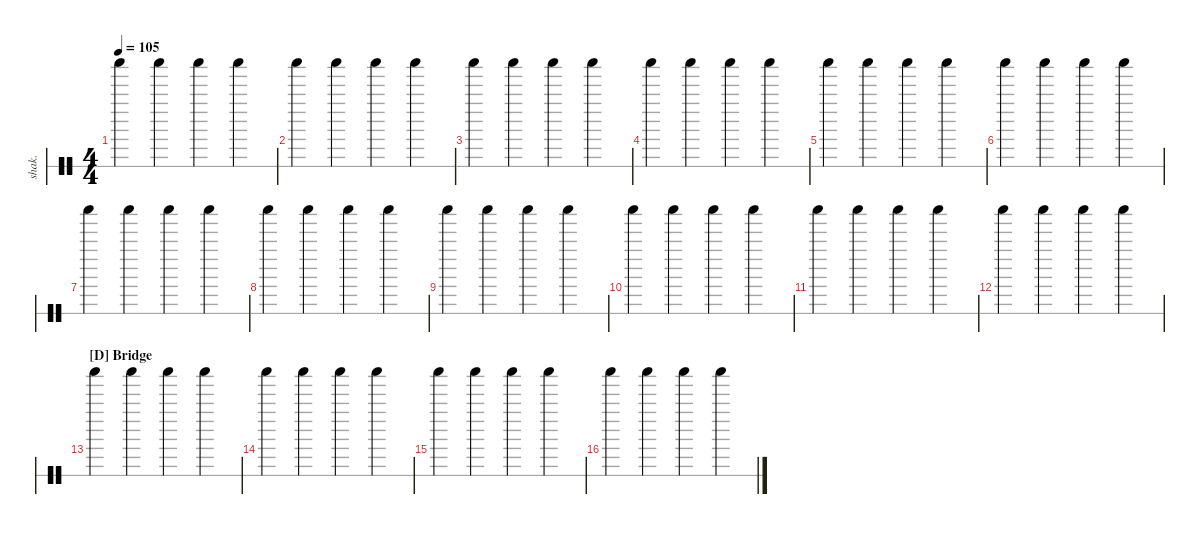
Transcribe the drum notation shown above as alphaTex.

\defaultSystemsLayout 4
\hideDynamics
\bracketExtendMode nobrackets
\otherSystemsTrackNameOrientation horizontal
\track ("Shaker" "shak.") {instrument percussion}
\staff {score 1}
\articulation defaults
\ts (4 4)
\tempo 105
\clef neutral
\ks c "Shaker (hit)".4{dy mp beam Down} "Shaker (hit)".4{beam Down} "Shaker (hit)".4{beam Down} "Shaker (hit)".4{beam Down}
|
"Shaker (hit)".4{beam Down} "Shaker (hit)".4{beam Down} "Shaker (hit)".4{beam Down} "Shaker (hit)".4{beam Down} |
"Shaker (hit)".4{beam Down} "Shaker (hit)".4{beam Down} "Shaker (hit)".4{beam Down} "Shaker (hit)".4{beam Down} |
"Shaker (hit)".4{beam Down} "Shaker (hit)".4{beam Down} "Shaker (hit)".4{beam Down} "Shaker (hit)".4{beam Down} |
"Shaker (hit)".4{beam Down} "Shaker (hit)".4{beam Down} "Shaker (hit)".4{beam Down} "Shaker (hit)".4{beam Down} |
"Shaker (hit)".4{beam Down} "Shaker (hit)".4{beam Down} "Shaker (hit)".4{beam Down} "Shaker (hit)".4{beam Down} |
"Shaker (hit)".4{beam Down} "Shaker (hit)".4{beam Down} "Shaker (hit)".4{beam Down} "Shaker (hit)".4{beam Down} |
"Shaker (hit)".4{beam Down} "Shaker (hit)".4{beam Down} "Shaker (hit)".4{beam Down} "Shaker (hit)".4{beam Down} |
"Shaker (hit)".4{beam Down} "Shaker (hit)".4{beam Down} "Shaker (hit)".4{beam Down} "Shaker (hit)".4{beam Down} |
"Shaker (hit)".4{beam Down} "Shaker (hit)".4{beam Down} "Shaker (hit)".4{beam Down} "Shaker (hit)".4{beam Down} |
"Shaker (hit)".4{beam Down} "Shaker (hit)".4{beam Down} "Shaker (hit)".4{beam Down} "Shaker (hit)".4{beam Down} |
"Shaker (hit)".4{beam Down} "Shaker (hit)".4{beam Down} "Shaker (hit)".4{beam Down} "Shaker (hit)".4{beam Down} |
\section ("D" "Bridge")
"Shaker (hit)".4{beam Down} "Shaker (hit)".4{beam Down} "Shaker (hit)".4{beam Down} "Shaker (hit)".4{beam Down} |
"Shaker (hit)".4{beam Down} "Shaker (hit)".4{beam Down} "Shaker (hit)".4{beam Down} "Shaker (hit)".4{beam Down} |
"Shaker (hit)".4{beam Down} "Shaker (hit)".4{beam Down} "Shaker (hit)".4{beam Down} "Shaker (hit)".4{beam Down} |
"Shaker (hit)".4{beam Down} "Shaker (hit)".4{beam Down} "Shaker (hit)".4{beam Down} "Shaker (hit)".4{beam Down}
